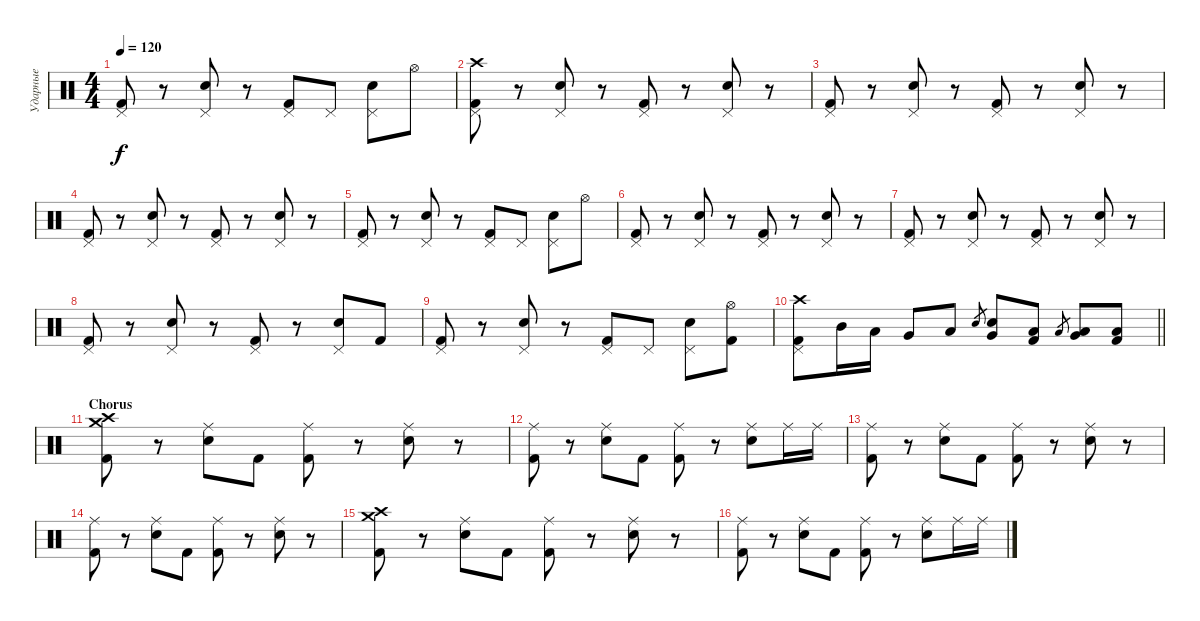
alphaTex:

\track ("Ударные" "Ударные") {instrument percussion}
\staff {score}
\articulation defaults
\ts (4 4)
\tempo 120
\clef neutral
\ks c
("Pedal Hi-Hat (hit)" "Kick (hit) 2").8{dy f} r.8 ("Pedal Hi-Hat (hit)" "Electric Snare (hit)").8 r.8 ("Pedal Hi-Hat (hit)" "Kick (hit) 2").8 "Pedal Hi-Hat (hit)".8 ("Pedal Hi-Hat (hit)" "Electric Snare (hit)").8 "Hi-Hat (open)".8 |
("Crash high (hit)" "Pedal Hi-Hat (hit)" "Kick (hit) 2").8 r.8 ("Pedal Hi-Hat (hit)" "Electric Snare (hit)").8 r.8 ("Pedal Hi-Hat (hit)" "Kick (hit) 2").8 r.8 ("Pedal Hi-Hat (hit)" "Electric Snare (hit)").8 r.8 |
("Pedal Hi-Hat (hit)" "Kick (hit) 2").8 r.8 ("Pedal Hi-Hat (hit)" "Electric Snare (hit)").8 r.8 ("Pedal Hi-Hat (hit)" "Kick (hit) 2").8 r.8 ("Pedal Hi-Hat (hit)" "Electric Snare (hit)").8 r.8 |
("Pedal Hi-Hat (hit)" "Kick (hit) 2").8 r.8 ("Pedal Hi-Hat (hit)" "Electric Snare (hit)").8 r.8 ("Pedal Hi-Hat (hit)" "Kick (hit) 2").8 r.8 ("Pedal Hi-Hat (hit)" "Electric Snare (hit)").8 r.8 |
("Pedal Hi-Hat (hit)" "Kick (hit) 2").8 r.8 ("Pedal Hi-Hat (hit)" "Electric Snare (hit)").8 r.8 ("Pedal Hi-Hat (hit)" "Kick (hit) 2").8 "Pedal Hi-Hat (hit)".8 ("Pedal Hi-Hat (hit)" "Electric Snare (hit)").8 "Hi-Hat (open)".8 |
("Pedal Hi-Hat (hit)" "Kick (hit) 2").8 r.8 ("Pedal Hi-Hat (hit)" "Electric Snare (hit)").8 r.8 ("Pedal Hi-Hat (hit)" "Kick (hit) 2").8 r.8 ("Pedal Hi-Hat (hit)" "Electric Snare (hit)").8 r.8 |
("Pedal Hi-Hat (hit)" "Kick (hit) 2").8 r.8 ("Pedal Hi-Hat (hit)" "Electric Snare (hit)").8 r.8 ("Pedal Hi-Hat (hit)" "Kick (hit) 2").8 r.8 ("Pedal Hi-Hat (hit)" "Electric Snare (hit)").8 r.8 |
("Pedal Hi-Hat (hit)" "Kick (hit) 2").8 r.8 ("Pedal Hi-Hat (hit)" "Electric Snare (hit)").8 r.8 ("Pedal Hi-Hat (hit)" "Kick (hit) 2").8 r.8 ("Pedal Hi-Hat (hit)" "Electric Snare (hit)").8 "Kick (hit) 2".8 |
("Pedal Hi-Hat (hit)" "Kick (hit) 2").8 r.8 ("Pedal Hi-Hat (hit)" "Electric Snare (hit)").8 r.8 ("Pedal Hi-Hat (hit)" "Kick (hit) 2").8 "Pedal Hi-Hat (hit)".8 ("Pedal Hi-Hat (hit)" "Electric Snare (hit)").8 ("Hi-Hat (open)" "Kick (hit) 2").8 |
\barLineRight lightlight
("Crash high (hit)" "Pedal Hi-Hat (hit)" "Kick (hit) 2").8 "Mid Tom (hit)".16 "Low Tom (hit)".16 "Very Low Tom (hit)".8 "Low Floor Tom (hit)".8 "Electric Snare (hit)".8{gr} ("Electric Snare (hit)" "Very Low Tom (hit)").8 ("Low Floor Tom (hit)" "Kick (hit) 2").8 "Low Tom (hit)".8{gr} ("Low Tom (hit)" "Very Low Tom (hit)").8 ("Low Floor Tom (hit)" "Kick (hit) 2").8 |
\section ("" "Chorus")
("Crash high (hit)" "Crash medium (hit)" "Kick (hit) 2").8 r.8 ("Ride (middle)" "Electric Snare (hit)").8 "Kick (hit) 2".8 ("Ride (middle)" "Kick (hit) 2").8 r.8 ("Ride (middle)" "Electric Snare (hit)").8 r.8 |
("Ride (middle)" "Kick (hit) 2").8 r.8 ("Ride (middle)" "Electric Snare (hit)").8 "Kick (hit) 2".8 ("Ride (middle)" "Kick (hit) 2").8 r.8 ("Ride (middle)" "Electric Snare (hit)").8 "Ride (middle)".16 "Ride (middle)".16 |
("Ride (middle)" "Kick (hit) 2").8 r.8 ("Ride (middle)" "Electric Snare (hit)").8 "Kick (hit) 2".8 ("Ride (middle)" "Kick (hit) 2").8 r.8 ("Ride (middle)" "Electric Snare (hit)").8 r.8 |
("Ride (middle)" "Kick (hit) 2").8 r.8 ("Ride (middle)" "Electric Snare (hit)").8 "Kick (hit) 2".8 ("Ride (middle)" "Kick (hit) 2").8 r.8 ("Ride (middle)" "Electric Snare (hit)").8 r.8 |
("Crash high (hit)" "Crash medium (hit)" "Kick (hit) 2").8 r.8 ("Ride (middle)" "Electric Snare (hit)").8 "Kick (hit) 2".8 ("Ride (middle)" "Kick (hit) 2").8 r.8 ("Ride (middle)" "Electric Snare (hit)").8 r.8 |
("Ride (middle)" "Kick (hit) 2").8 r.8 ("Ride (middle)" "Electric Snare (hit)").8 "Kick (hit) 2".8 ("Ride (middle)" "Kick (hit) 2").8 r.8 ("Ride (middle)" "Electric Snare (hit)").8 "Ride (middle)".16 "Ride (middle)".16
